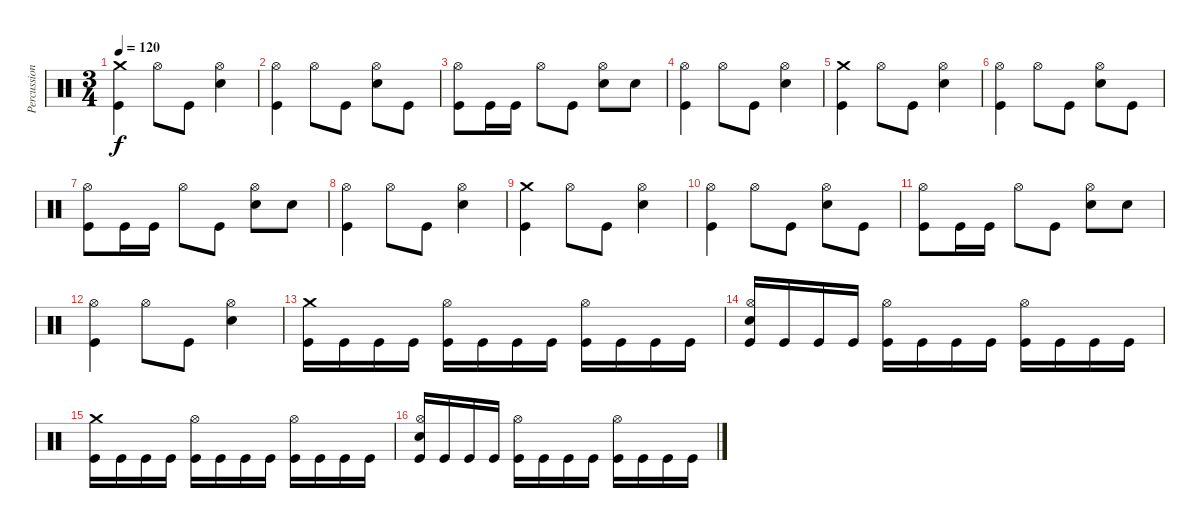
\track ("Percussion" "Percussion") {instrument percussion}
\staff {score}
\articulation defaults
\ts (3 4)
\tempo 120
\clef neutral
\ks c
("Crash medium (hit)" "Kick (hit)").4{dy f} "Hi-Hat (open)".8 "Kick (hit)".8 ("Hi-Hat (open)" "Snare (hit) 2").4 |
("Hi-Hat (open)" "Kick (hit)").4 "Hi-Hat (open)".8 "Kick (hit)".8 ("Hi-Hat (open)" "Snare (hit) 2").8 "Kick (hit)".8 |
("Hi-Hat (open)" "Kick (hit)").8 "Kick (hit)".16 "Kick (hit)".16 "Hi-Hat (open)".8 "Kick (hit)".8 ("Hi-Hat (open)" "Snare (hit) 2").8 "Snare (hit) 2".8 |
("Hi-Hat (open)" "Kick (hit)").4 "Hi-Hat (open)".8 "Kick (hit)".8 ("Hi-Hat (open)" "Snare (hit) 2").4 |
("Crash medium (hit)" "Kick (hit)").4 "Hi-Hat (open)".8 "Kick (hit)".8 ("Hi-Hat (open)" "Snare (hit) 2").4 |
("Hi-Hat (open)" "Kick (hit)").4 "Hi-Hat (open)".8 "Kick (hit)".8 ("Hi-Hat (open)" "Snare (hit) 2").8 "Kick (hit)".8 |
("Hi-Hat (open)" "Kick (hit)").8 "Kick (hit)".16 "Kick (hit)".16 "Hi-Hat (open)".8 "Kick (hit)".8 ("Hi-Hat (open)" "Snare (hit) 2").8 "Snare (hit) 2".8 |
("Hi-Hat (open)" "Kick (hit)").4 "Hi-Hat (open)".8 "Kick (hit)".8 ("Hi-Hat (open)" "Snare (hit) 2").4 |
("Crash medium (hit)" "Kick (hit)").4 "Hi-Hat (open)".8 "Kick (hit)".8 ("Hi-Hat (open)" "Snare (hit) 2").4 |
("Hi-Hat (open)" "Kick (hit)").4 "Hi-Hat (open)".8 "Kick (hit)".8 ("Hi-Hat (open)" "Snare (hit) 2").8 "Kick (hit)".8 |
("Hi-Hat (open)" "Kick (hit)").8 "Kick (hit)".16 "Kick (hit)".16 "Hi-Hat (open)".8 "Kick (hit)".8 ("Hi-Hat (open)" "Snare (hit) 2").8 "Snare (hit) 2".8 |
("Hi-Hat (open)" "Kick (hit)").4 "Hi-Hat (open)".8 "Kick (hit)".8 ("Hi-Hat (open)" "Snare (hit) 2").4 |
("Crash medium (hit)" "Kick (hit)").16 "Kick (hit)".16 "Kick (hit)".16 "Kick (hit)".16 ("Hi-Hat (open)" "Kick (hit)").16 "Kick (hit)".16 "Kick (hit)".16 "Kick (hit)".16 ("Hi-Hat (open)" "Kick (hit)").16 "Kick (hit)".16 "Kick (hit)".16 "Kick (hit)".16 |
("Hi-Hat (open)" "Snare (hit) 2" "Kick (hit)").16 "Kick (hit)".16 "Kick (hit)".16 "Kick (hit)".16 ("Hi-Hat (open)" "Kick (hit)").16 "Kick (hit)".16 "Kick (hit)".16 "Kick (hit)".16 ("Hi-Hat (open)" "Kick (hit)").16 "Kick (hit)".16 "Kick (hit)".16 "Kick (hit)".16 |
("Crash medium (hit)" "Kick (hit)").16 "Kick (hit)".16 "Kick (hit)".16 "Kick (hit)".16 ("Hi-Hat (open)" "Kick (hit)").16 "Kick (hit)".16 "Kick (hit)".16 "Kick (hit)".16 ("Hi-Hat (open)" "Kick (hit)").16 "Kick (hit)".16 "Kick (hit)".16 "Kick (hit)".16 |
("Hi-Hat (open)" "Snare (hit) 2" "Kick (hit)").16 "Kick (hit)".16 "Kick (hit)".16 "Kick (hit)".16 ("Hi-Hat (open)" "Kick (hit)").16 "Kick (hit)".16 "Kick (hit)".16 "Kick (hit)".16 ("Hi-Hat (open)" "Kick (hit)").16 "Kick (hit)".16 "Kick (hit)".16 "Kick (hit)".16
